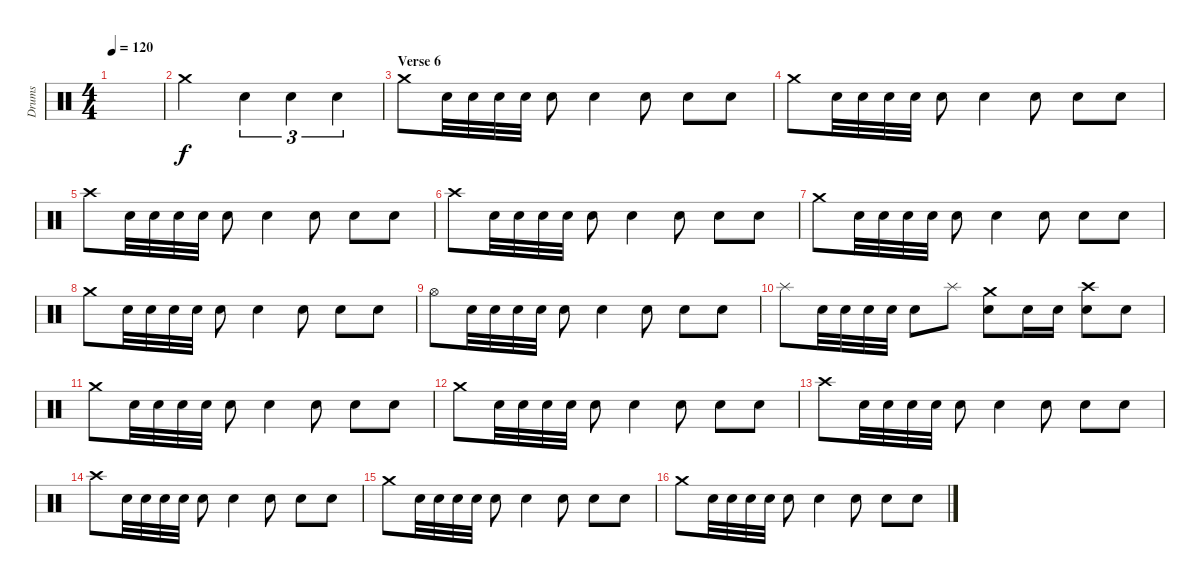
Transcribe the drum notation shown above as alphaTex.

\track ("Drums" "Drums") {instrument percussion}
\staff {score}
\articulation defaults
\ts (4 4)
\tempo 120
\clef neutral
\ks c
|
"Crash medium (hit)".2 "Electric Snare (hit)".4{tu (3 2)} "Electric Snare (hit)".4{tu (3 2)} "Electric Snare (hit)".4{tu (3 2)} |
\section ("" "Verse 6")
"Crash medium (hit)".8 "Electric Snare (hit)".32 "Electric Snare (hit)".32 "Electric Snare (hit)".32 "Electric Snare (hit)".32 "Electric Snare (hit)".8 "Electric Snare (hit)".4 "Electric Snare (hit)".8 "Electric Snare (hit)".8 "Electric Snare (hit)".8 |
"Crash medium (hit)".8 "Electric Snare (hit)".32 "Electric Snare (hit)".32 "Electric Snare (hit)".32 "Electric Snare (hit)".32 "Electric Snare (hit)".8 "Electric Snare (hit)".4 "Electric Snare (hit)".8 "Electric Snare (hit)".8 "Electric Snare (hit)".8 |
"Crash high (hit)".8 "Electric Snare (hit)".32 "Electric Snare (hit)".32 "Electric Snare (hit)".32 "Electric Snare (hit)".32 "Electric Snare (hit)".8 "Electric Snare (hit)".4 "Electric Snare (hit)".8 "Electric Snare (hit)".8 "Electric Snare (hit)".8 |
"Crash high (hit)".8 "Electric Snare (hit)".32 "Electric Snare (hit)".32 "Electric Snare (hit)".32 "Electric Snare (hit)".32 "Electric Snare (hit)".8 "Electric Snare (hit)".4 "Electric Snare (hit)".8 "Electric Snare (hit)".8 "Electric Snare (hit)".8 |
"Crash medium (hit)".8 "Electric Snare (hit)".32 "Electric Snare (hit)".32 "Electric Snare (hit)".32 "Electric Snare (hit)".32 "Electric Snare (hit)".8 "Electric Snare (hit)".4 "Electric Snare (hit)".8 "Electric Snare (hit)".8 "Electric Snare (hit)".8 |
"Crash medium (hit)".8 "Electric Snare (hit)".32 "Electric Snare (hit)".32 "Electric Snare (hit)".32 "Electric Snare (hit)".32 "Electric Snare (hit)".8 "Electric Snare (hit)".4 "Electric Snare (hit)".8 "Electric Snare (hit)".8 "Electric Snare (hit)".8 |
"Hi-Hat (open)".8 "Electric Snare (hit)".32 "Electric Snare (hit)".32 "Electric Snare (hit)".32 "Electric Snare (hit)".32 "Electric Snare (hit)".8 "Electric Snare (hit)".4 "Electric Snare (hit)".8 "Electric Snare (hit)".8 "Electric Snare (hit)".8 |
"Splash (hit)".8 "Electric Snare (hit)".32 "Electric Snare (hit)".32 "Electric Snare (hit)".32 "Electric Snare (hit)".32 "Electric Snare (hit)".8 "Splash (hit)".8 ("Crash medium (hit)" "Electric Snare (hit)").8 "Electric Snare (hit)".16 "Electric Snare (hit)".16 ("Crash high (hit)" "Electric Snare (hit)").8 "Electric Snare (hit)".8 |
"Crash medium (hit)".8 "Electric Snare (hit)".32 "Electric Snare (hit)".32 "Electric Snare (hit)".32 "Electric Snare (hit)".32 "Electric Snare (hit)".8 "Electric Snare (hit)".4 "Electric Snare (hit)".8 "Electric Snare (hit)".8 "Electric Snare (hit)".8 |
"Crash medium (hit)".8 "Electric Snare (hit)".32 "Electric Snare (hit)".32 "Electric Snare (hit)".32 "Electric Snare (hit)".32 "Electric Snare (hit)".8 "Electric Snare (hit)".4 "Electric Snare (hit)".8 "Electric Snare (hit)".8 "Electric Snare (hit)".8 |
"Crash high (hit)".8 "Electric Snare (hit)".32 "Electric Snare (hit)".32 "Electric Snare (hit)".32 "Electric Snare (hit)".32 "Electric Snare (hit)".8 "Electric Snare (hit)".4 "Electric Snare (hit)".8 "Electric Snare (hit)".8 "Electric Snare (hit)".8 |
"Crash high (hit)".8 "Electric Snare (hit)".32 "Electric Snare (hit)".32 "Electric Snare (hit)".32 "Electric Snare (hit)".32 "Electric Snare (hit)".8 "Electric Snare (hit)".4 "Electric Snare (hit)".8 "Electric Snare (hit)".8 "Electric Snare (hit)".8 |
"Crash medium (hit)".8 "Electric Snare (hit)".32 "Electric Snare (hit)".32 "Electric Snare (hit)".32 "Electric Snare (hit)".32 "Electric Snare (hit)".8 "Electric Snare (hit)".4 "Electric Snare (hit)".8 "Electric Snare (hit)".8 "Electric Snare (hit)".8 |
"Crash medium (hit)".8 "Electric Snare (hit)".32 "Electric Snare (hit)".32 "Electric Snare (hit)".32 "Electric Snare (hit)".32 "Electric Snare (hit)".8 "Electric Snare (hit)".4 "Electric Snare (hit)".8 "Electric Snare (hit)".8 "Electric Snare (hit)".8
